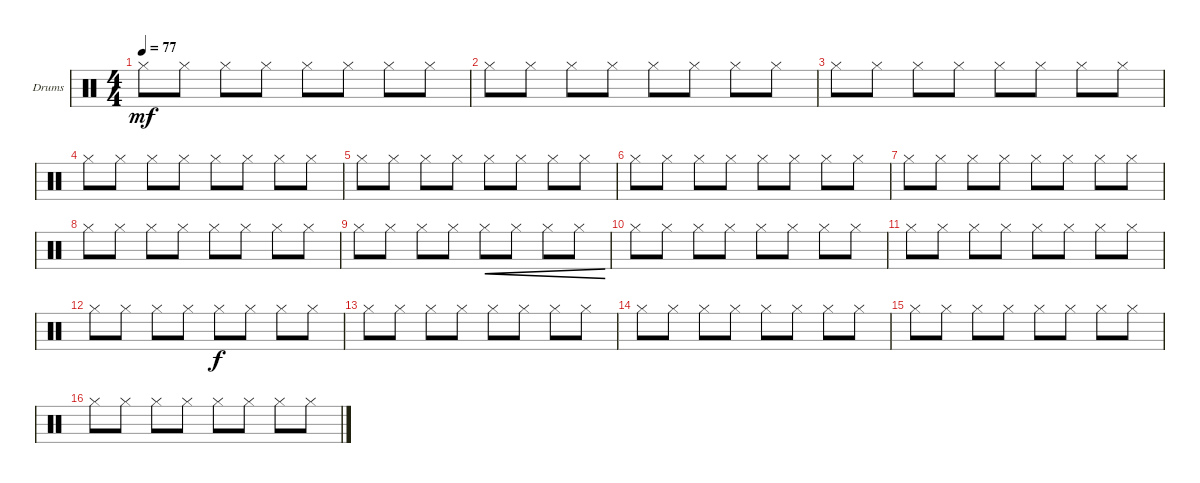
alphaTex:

\bracketExtendMode groupsimilarinstruments
\firstSystemTrackNameOrientation horizontal
\otherSystemsTrackNameOrientation horizontal
\track ("Drumkit Гурьянов" "Drums") {instrument percussion}
\staff {score}
\articulation defaults
\ts (4 4)
\tempo 77
\clef neutral
\scale
0.333333
\ks c "Hi-Hat (closed)".8{dy mf} "Hi-Hat (closed)".8 "Hi-Hat (closed)".8 "Hi-Hat (closed)".8 "Hi-Hat (closed)".8 "Hi-Hat (closed)".8 "Hi-Hat (closed)".8 "Hi-Hat (closed)".8
|
\scale
0.333333 "Hi-Hat (closed)".8 "Hi-Hat (closed)".8 "Hi-Hat (closed)".8 "Hi-Hat (closed)".8 "Hi-Hat (closed)".8 "Hi-Hat (closed)".8 "Hi-Hat (closed)".8 "Hi-Hat (closed)".8 |
\scale
0.333333 "Hi-Hat (closed)".8 "Hi-Hat (closed)".8 "Hi-Hat (closed)".8 "Hi-Hat (closed)".8 "Hi-Hat (closed)".8 "Hi-Hat (closed)".8 "Hi-Hat (closed)".8 "Hi-Hat (closed)".8 |
\scale
0.333333 "Hi-Hat (closed)".8 "Hi-Hat (closed)".8 "Hi-Hat (closed)".8 "Hi-Hat (closed)".8 "Hi-Hat (closed)".8 "Hi-Hat (closed)".8 "Hi-Hat (closed)".8 "Hi-Hat (closed)".8 |
\scale
0.333333 "Hi-Hat (closed)".8 "Hi-Hat (closed)".8 "Hi-Hat (closed)".8 "Hi-Hat (closed)".8 "Hi-Hat (closed)".8 "Hi-Hat (closed)".8 "Hi-Hat (closed)".8 "Hi-Hat (closed)".8 |
\scale
0.333333 "Hi-Hat (closed)".8 "Hi-Hat (closed)".8 "Hi-Hat (closed)".8 "Hi-Hat (closed)".8 "Hi-Hat (closed)".8 "Hi-Hat (closed)".8 "Hi-Hat (closed)".8 "Hi-Hat (closed)".8 |
\scale
0.333333 "Hi-Hat (closed)".8 "Hi-Hat (closed)".8 "Hi-Hat (closed)".8 "Hi-Hat (closed)".8 "Hi-Hat (closed)".8 "Hi-Hat (closed)".8 "Hi-Hat (closed)".8 "Hi-Hat (closed)".8 |
\scale
0.333333 "Hi-Hat (closed)".8 "Hi-Hat (closed)".8 "Hi-Hat (closed)".8 "Hi-Hat (closed)".8 "Hi-Hat (closed)".8 "Hi-Hat (closed)".8 "Hi-Hat (closed)".8 "Hi-Hat (closed)".8 |
\scale
0.333333 "Hi-Hat (closed)".8 "Hi-Hat (closed)".8 "Hi-Hat (closed)".8 "Hi-Hat (closed)".8 "Hi-Hat (closed)".8{cre} "Hi-Hat (closed)".8{cre} "Hi-Hat (closed)".8{cre} "Hi-Hat (closed)".8{cre} |
\scale
0.333333 "Hi-Hat (closed)".8 "Hi-Hat (closed)".8 "Hi-Hat (closed)".8 "Hi-Hat (closed)".8 "Hi-Hat (closed)".8 "Hi-Hat (closed)".8 "Hi-Hat (closed)".8 "Hi-Hat (closed)".8 |
\scale
0.333333 "Hi-Hat (closed)".8 "Hi-Hat (closed)".8 "Hi-Hat (closed)".8 "Hi-Hat (closed)".8 "Hi-Hat (closed)".8 "Hi-Hat (closed)".8 "Hi-Hat (closed)".8 "Hi-Hat (closed)".8 |
\scale
0.333333 "Hi-Hat (closed)".8 "Hi-Hat (closed)".8 "Hi-Hat (closed)".8 "Hi-Hat (closed)".8 "Hi-Hat (closed)".8{dy f} "Hi-Hat (closed)".8 "Hi-Hat (closed)".8 "Hi-Hat (closed)".8 |
\scale
0.333333 "Hi-Hat (closed)".8 "Hi-Hat (closed)".8 "Hi-Hat (closed)".8 "Hi-Hat (closed)".8 "Hi-Hat (closed)".8 "Hi-Hat (closed)".8 "Hi-Hat (closed)".8 "Hi-Hat (closed)".8 |
\scale
0.333333 "Hi-Hat (closed)".8 "Hi-Hat (closed)".8 "Hi-Hat (closed)".8 "Hi-Hat (closed)".8 "Hi-Hat (closed)".8 "Hi-Hat (closed)".8 "Hi-Hat (closed)".8 "Hi-Hat (closed)".8 |
\scale
0.333333 "Hi-Hat (closed)".8 "Hi-Hat (closed)".8 "Hi-Hat (closed)".8 "Hi-Hat (closed)".8 "Hi-Hat (closed)".8 "Hi-Hat (closed)".8 "Hi-Hat (closed)".8 "Hi-Hat (closed)".8 |
\scale
0.333333 "Hi-Hat (closed)".8 "Hi-Hat (closed)".8 "Hi-Hat (closed)".8 "Hi-Hat (closed)".8 "Hi-Hat (closed)".8 "Hi-Hat (closed)".8 "Hi-Hat (closed)".8 "Hi-Hat (closed)".8
